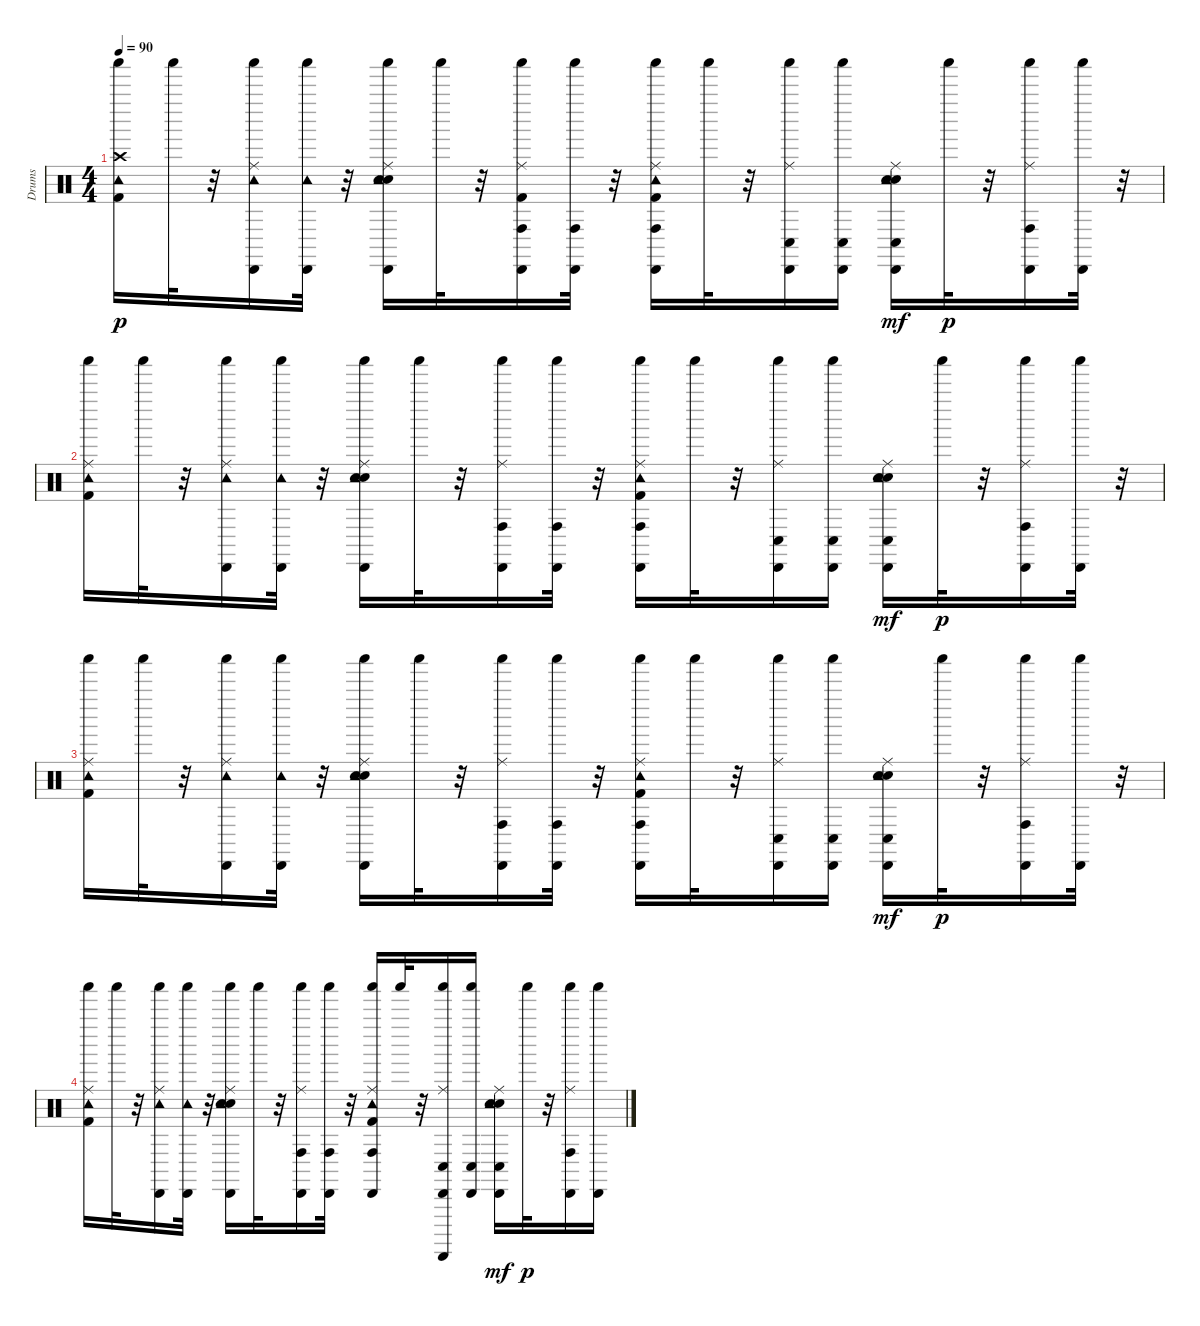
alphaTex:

\track ("Drums" "Drums") {instrument percussion}
\staff {score}
\articulation defaults
\ts (4 4)
\tempo 90
\clef neutral
\ks c
("Crash high (hit)" "Kick (hit) 2" "Tambourine (hit)" "Shaker (hit)").16{dy p} "Shaker (hit)".32 r.32 ("Ride (middle)" "Tambourine (hit)" "Cabasa (hit)" "Shaker (hit)").16 ("Tambourine (hit)" "Cabasa (hit)" "Shaker (hit)").32 r.32 ("Electric Snare (hit)" "Ride (middle)" "Snare (hit) 2" "Tambourine (hit)" "Cabasa (hit)" "Shaker (hit)").16 "Shaker (hit)".32 r.32 ("Ride (middle)" "Kick (hit) 2" "Cabasa (hit)" "Conga high (hit)" "Shaker (hit)").16 ("Cabasa (hit)" "Conga high (hit)" "Shaker (hit)").32 r.32 ("Ride (middle)" "Kick (hit) 2" "Cabasa (hit)" "Conga high (hit)" "Tambourine (hit)" "Shaker (hit)").16 "Shaker (hit)".32 r.32 ("Ride (middle)" "Cabasa (hit)" "Conga low (hit)" "Shaker (hit)").16 ("Cabasa (hit)" "Conga low (hit)" "Shaker (hit)").16 ("Electric Snare (hit)" "Ride (middle)" "Snare (hit) 2" "Cabasa (hit)" "Conga low (hit)" "Tambourine (hit)").16{dy mf} "Shaker (hit)".32{dy p} r.32 ("Ride (middle)" "Cabasa (hit)" "Conga high (hit)" "Shaker (hit)").16 ("Cabasa (hit)" "Shaker (hit)").32 r.32 |
("Ride (middle)" "Kick (hit) 2" "Tambourine (hit)" "Shaker (hit)").16 "Shaker (hit)".32 r.32 ("Ride (middle)" "Tambourine (hit)" "Cabasa (hit)" "Shaker (hit)").16 ("Tambourine (hit)" "Cabasa (hit)" "Shaker (hit)").32 r.32 ("Electric Snare (hit)" "Ride (middle)" "Snare (hit) 2" "Tambourine (hit)" "Cabasa (hit)" "Shaker (hit)").16 "Shaker (hit)".32 r.32 ("Ride (middle)" "Cabasa (hit)" "Conga high (hit)" "Shaker (hit)").16 ("Cabasa (hit)" "Conga high (hit)" "Shaker (hit)").32 r.32 ("Ride (middle)" "Kick (hit) 2" "Cabasa (hit)" "Conga high (hit)" "Tambourine (hit)" "Shaker (hit)").16 "Shaker (hit)".32 r.32 ("Ride (middle)" "Cabasa (hit)" "Conga low (hit)" "Shaker (hit)").16 ("Cabasa (hit)" "Conga low (hit)" "Shaker (hit)").16 ("Electric Snare (hit)" "Ride (middle)" "Snare (hit) 2" "Cabasa (hit)" "Conga low (hit)" "Tambourine (hit)").16{dy mf} "Shaker (hit)".32{dy p} r.32 ("Ride (middle)" "Cabasa (hit)" "Conga high (hit)" "Shaker (hit)").16 ("Cabasa (hit)" "Shaker (hit)").32 r.32 |
("Ride (middle)" "Kick (hit) 2" "Tambourine (hit)" "Shaker (hit)").16 "Shaker (hit)".32 r.32 ("Ride (middle)" "Tambourine (hit)" "Cabasa (hit)" "Shaker (hit)").16 ("Tambourine (hit)" "Cabasa (hit)" "Shaker (hit)").32 r.32 ("Electric Snare (hit)" "Ride (middle)" "Snare (hit) 2" "Tambourine (hit)" "Cabasa (hit)" "Shaker (hit)").16 "Shaker (hit)".32 r.32 ("Ride (middle)" "Cabasa (hit)" "Conga high (hit)" "Shaker (hit)").16 ("Cabasa (hit)" "Conga high (hit)" "Shaker (hit)").32 r.32 ("Ride (middle)" "Kick (hit) 2" "Cabasa (hit)" "Conga high (hit)" "Tambourine (hit)" "Shaker (hit)").16 "Shaker (hit)".32 r.32 ("Ride (middle)" "Cabasa (hit)" "Conga low (hit)" "Shaker (hit)").16 ("Cabasa (hit)" "Conga low (hit)" "Shaker (hit)").16 ("Electric Snare (hit)" "Ride (middle)" "Snare (hit) 2" "Cabasa (hit)" "Conga low (hit)" "Tambourine (hit)").16{dy mf} "Shaker (hit)".32{dy p} r.32 ("Ride (middle)" "Cabasa (hit)" "Conga high (hit)" "Shaker (hit)").16 ("Cabasa (hit)" "Shaker (hit)").32 r.32 |
("Ride (middle)" "Kick (hit) 2" "Tambourine (hit)" "Shaker (hit)").16 "Shaker (hit)".32 r.32 ("Ride (middle)" "Tambourine (hit)" "Cabasa (hit)" "Shaker (hit)").16 ("Tambourine (hit)" "Cabasa (hit)" "Shaker (hit)").32 r.32 ("Electric Snare (hit)" "Ride (middle)" "Snare (hit) 2" "Tambourine (hit)" "Cabasa (hit)" "Shaker (hit)").16 "Shaker (hit)".32 r.32 ("Ride (middle)" "Cabasa (hit)" "Conga high (hit)" "Shaker (hit)").16 ("Cabasa (hit)" "Conga high (hit)" "Shaker (hit)").32 r.32 ("Ride (middle)" "Kick (hit) 2" "Cabasa (hit)" "Conga high (hit)" "Tambourine (hit)" "Shaker (hit)").16 "Shaker (hit)".32 r.32 ("Ride (middle)" "Cabasa (hit)" "Conga low (hit)" "Shaker (hit)" "Guiro (scrap-return)").16 ("Cabasa (hit)" "Conga low (hit)" "Shaker (hit)").16 ("Electric Snare (hit)" "Ride (middle)" "Snare (hit) 2" "Cabasa (hit)" "Conga low (hit)" "Tambourine (hit)").16{dy mf} "Shaker (hit)".32{dy p} r.32 ("Ride (middle)" "Cabasa (hit)" "Conga high (hit)" "Shaker (hit)").16 ("Cabasa (hit)" "Shaker (hit)").16
